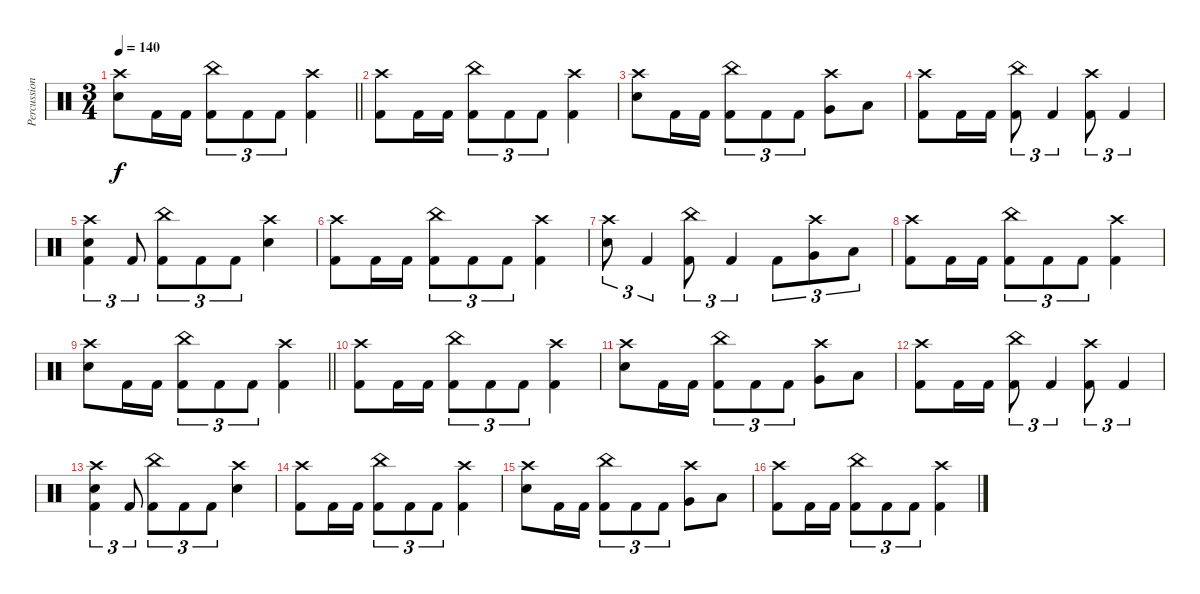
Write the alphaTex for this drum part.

\track ("Percussions" "Percussion") {instrument percussion}
\staff {score}
\articulation defaults
\ts (3 4)
\tempo 140
\clef neutral
\barLineRight lightlight
\ks c
("Crash high (hit)" "Electric Snare (hit)").8{dy f} "Kick (hit) 2".16 "Kick (hit) 2".16 ("China (hit)" "Kick (hit) 2").8{tu (3 2)} "Kick (hit) 2".8{tu (3 2)} "Kick (hit) 2".8{tu (3 2)} ("Crash high (hit)" "Kick (hit) 2").4 |
\section ("" "")
("Crash high (hit)" "Kick (hit) 2").8 "Kick (hit) 2".16 "Kick (hit) 2".16 ("China (hit)" "Kick (hit) 2").8{tu (3 2)} "Kick (hit) 2".8{tu (3 2)} "Kick (hit) 2".8{tu (3 2)} ("Crash high (hit)" "Kick (hit) 2").4 |
("Crash high (hit)" "Electric Snare (hit)").8 "Kick (hit) 2".16 "Kick (hit) 2".16 ("China (hit)" "Kick (hit) 2").8{tu (3 2)} "Kick (hit) 2".8{tu (3 2)} "Kick (hit) 2".8{tu (3 2)} ("Crash high (hit)" "Very Low Tom (hit)").8 "Low Floor Tom (hit)".8 |
("Crash high (hit)" "Kick (hit) 2").8 "Kick (hit) 2".16 "Kick (hit) 2".16 ("China (hit)" "Kick (hit) 2").8{tu (3 2)} "Kick (hit) 2".4{tu (3 2)} ("Crash high (hit)" "Kick (hit) 2").8{tu (3 2)} "Kick (hit) 2".4{tu (3 2)} |
("Crash high (hit)" "Electric Snare (hit)" "Kick (hit) 2").4{tu (3 2)} "Kick (hit) 2".8{tu (3 2)} ("China (hit)" "Kick (hit) 2").8{tu (3 2)} "Kick (hit) 2".8{tu (3 2)} "Kick (hit) 2".8{tu (3 2)} ("Crash high (hit)" "Electric Snare (hit)").4 |
("Crash high (hit)" "Kick (hit) 2").8 "Kick (hit) 2".16 "Kick (hit) 2".16 ("China (hit)" "Kick (hit) 2").8{tu (3 2)} "Kick (hit) 2".8{tu (3 2)} "Kick (hit) 2".8{tu (3 2)} ("Crash high (hit)" "Kick (hit) 2").4 |
("Crash high (hit)" "Electric Snare (hit)").8{tu (3 2)} "Kick (hit) 2".4{tu (3 2)} ("China (hit)" "Kick (hit) 2").8{tu (3 2)} "Kick (hit) 2".4{tu (3 2)} "Kick (hit) 2".8{tu (3 2)} ("Crash high (hit)" "Very Low Tom (hit)").8{tu (3 2)} "Low Tom (hit)".8{tu (3 2)} |
("Crash high (hit)" "Kick (hit) 2").8 "Kick (hit) 2".16 "Kick (hit) 2".16 ("China (hit)" "Kick (hit) 2").8{tu (3 2)} "Kick (hit) 2".8{tu (3 2)} "Kick (hit) 2".8{tu (3 2)} ("Crash high (hit)" "Kick (hit) 2").4 |
\barLineRight lightlight
("Crash high (hit)" "Electric Snare (hit)").8 "Kick (hit) 2".16 "Kick (hit) 2".16 ("China (hit)" "Kick (hit) 2").8{tu (3 2)} "Kick (hit) 2".8{tu (3 2)} "Kick (hit) 2".8{tu (3 2)} ("Crash high (hit)" "Kick (hit) 2").4 |
\section ("" "")
("Crash high (hit)" "Kick (hit) 2").8 "Kick (hit) 2".16 "Kick (hit) 2".16 ("China (hit)" "Kick (hit) 2").8{tu (3 2)} "Kick (hit) 2".8{tu (3 2)} "Kick (hit) 2".8{tu (3 2)} ("Crash high (hit)" "Kick (hit) 2").4 |
("Crash high (hit)" "Electric Snare (hit)").8 "Kick (hit) 2".16 "Kick (hit) 2".16 ("China (hit)" "Kick (hit) 2").8{tu (3 2)} "Kick (hit) 2".8{tu (3 2)} "Kick (hit) 2".8{tu (3 2)} ("Crash high (hit)" "Very Low Tom (hit)").8 "Low Floor Tom (hit)".8 |
("Crash high (hit)" "Kick (hit) 2").8 "Kick (hit) 2".16 "Kick (hit) 2".16 ("China (hit)" "Kick (hit) 2").8{tu (3 2)} "Kick (hit) 2".4{tu (3 2)} ("Crash high (hit)" "Kick (hit) 2").8{tu (3 2)} "Kick (hit) 2".4{tu (3 2)} |
("Crash high (hit)" "Electric Snare (hit)" "Kick (hit) 2").4{tu (3 2)} "Kick (hit) 2".8{tu (3 2)} ("China (hit)" "Kick (hit) 2").8{tu (3 2)} "Kick (hit) 2".8{tu (3 2)} "Kick (hit) 2".8{tu (3 2)} ("Crash high (hit)" "Electric Snare (hit)").4 |
("Crash high (hit)" "Kick (hit) 2").8 "Kick (hit) 2".16 "Kick (hit) 2".16 ("China (hit)" "Kick (hit) 2").8{tu (3 2)} "Kick (hit) 2".8{tu (3 2)} "Kick (hit) 2".8{tu (3 2)} ("Crash high (hit)" "Kick (hit) 2").4 |
("Crash high (hit)" "Electric Snare (hit)").8 "Kick (hit) 2".16 "Kick (hit) 2".16 ("China (hit)" "Kick (hit) 2").8{tu (3 2)} "Kick (hit) 2".8{tu (3 2)} "Kick (hit) 2".8{tu (3 2)} ("Crash high (hit)" "Very Low Tom (hit)").8 "Low Floor Tom (hit)".8 |
("Crash high (hit)" "Kick (hit) 2").8 "Kick (hit) 2".16 "Kick (hit) 2".16 ("China (hit)" "Kick (hit) 2").8{tu (3 2)} "Kick (hit) 2".8{tu (3 2)} "Kick (hit) 2".8{tu (3 2)} ("Crash high (hit)" "Kick (hit) 2").4
